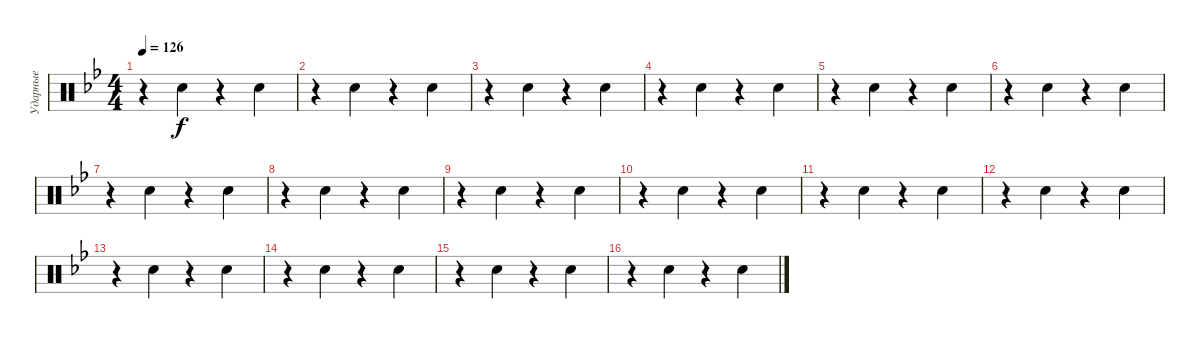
\track ("Ударные" "Ударные") {instrument percussion}
\staff {score}
\articulation defaults
\ts (4 4)
\tempo 126
\clef neutral
\ks bb
r.4{dy f} "Hand Clap (hit)".4 r.4 "Hand Clap (hit)".4 |
r.4 "Hand Clap (hit)".4 r.4 "Hand Clap (hit)".4 |
r.4 "Hand Clap (hit)".4 r.4 "Hand Clap (hit)".4 |
r.4 "Hand Clap (hit)".4 r.4 "Hand Clap (hit)".4 |
r.4 "Hand Clap (hit)".4 r.4 "Hand Clap (hit)".4 |
r.4 "Hand Clap (hit)".4 r.4 "Hand Clap (hit)".4 |
r.4 "Hand Clap (hit)".4 r.4 "Hand Clap (hit)".4 |
r.4 "Hand Clap (hit)".4 r.4 "Hand Clap (hit)".4 |
r.4 "Hand Clap (hit)".4 r.4 "Hand Clap (hit)".4 |
r.4 "Hand Clap (hit)".4 r.4 "Hand Clap (hit)".4 |
r.4 "Hand Clap (hit)".4 r.4 "Hand Clap (hit)".4 |
r.4 "Hand Clap (hit)".4 r.4 "Hand Clap (hit)".4 |
r.4 "Hand Clap (hit)".4 r.4 "Hand Clap (hit)".4 |
r.4 "Hand Clap (hit)".4 r.4 "Hand Clap (hit)".4 |
r.4 "Hand Clap (hit)".4 r.4 "Hand Clap (hit)".4 |
r.4 "Hand Clap (hit)".4 r.4 "Hand Clap (hit)".4
